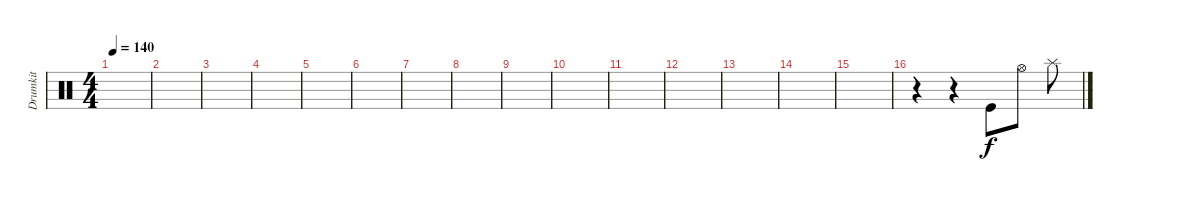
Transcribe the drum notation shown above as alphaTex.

\track ("Drumkit" "Drumkit") {instrument percussion}
\staff {score}
\articulation defaults
\ts (4 4)
\tempo 140
\clef neutral
\ks c
|
|
|
|
|
|
|
|
|
|
|
|
|
|
|
r.4 r.4 "Kick (hit)".8 "Hi-Hat (open)".8 "Splash (hit)".8
